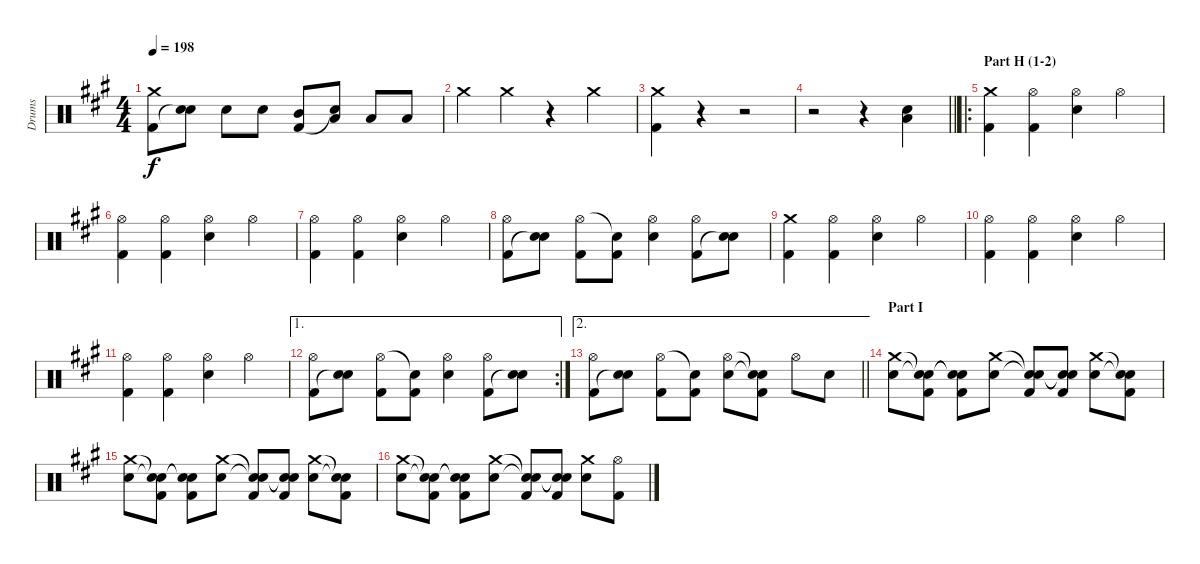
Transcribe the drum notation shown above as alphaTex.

\track ("Drums" "Drums") {instrument percussion}
\staff {score}
\articulation defaults
\ts (4 4)
\tempo 198
\clef neutral
\ks a
("Crash medium (hit)" "Kick (hit) 2").8{dy f} ("Electric Snare (hit)" "Snare (hit)"{t}).8 "Electric Snare (hit)".8 "Electric Snare (hit)".8 ("Mid Tom (hit)" "Kick (hit) 2").8 ("Low Tom (hit)" "Snare (hit)"{t}).8 "Low Tom (hit)".8 "Low Floor Tom (hit)".8 |
"Crash medium (hit)".4 "Crash medium (hit)".4 r.4 "Crash medium (hit)".4 |
("Crash medium (hit)" "Kick (hit) 2").4 r.4 r.2 |
\barLineRight lightlight
r.2 r.4 ("Electric Snare (hit)" "Low Floor Tom (hit)").4 |
\ro
\section ("" "Part H (1-2)")
("Crash medium (hit)" "Kick (hit) 2").4 ("Hi-Hat (open)" "Kick (hit) 2").4 ("Hi-Hat (open)" "Electric Snare (hit)").4 "Hi-Hat (open)".4 |
("Hi-Hat (open)" "Kick (hit) 2").4 ("Hi-Hat (open)" "Kick (hit) 2").4 ("Hi-Hat (open)" "Electric Snare (hit)").4 "Hi-Hat (open)".4 |
("Hi-Hat (open)" "Kick (hit) 2").4 ("Hi-Hat (open)" "Kick (hit) 2").4 ("Hi-Hat (open)" "Electric Snare (hit)").4 "Hi-Hat (open)".4 |
("Hi-Hat (open)" "Kick (hit) 2").8 ("Electric Snare (hit)" "Snare (hit)"{t}).8 ("Hi-Hat (open)" "Kick (hit) 2").8 ("Snare (hit)"{t} "Kick (hit) 2").8 ("Hi-Hat (open)" "Electric Snare (hit)").4 ("Hi-Hat (open)" "Kick (hit) 2").8 ("Electric Snare (hit)" "Snare (hit)"{t}).8 |
("Crash medium (hit)" "Kick (hit) 2").4 ("Hi-Hat (open)" "Kick (hit) 2").4 ("Hi-Hat (open)" "Electric Snare (hit)").4 "Hi-Hat (open)".4 |
("Hi-Hat (open)" "Kick (hit) 2").4 ("Hi-Hat (open)" "Kick (hit) 2").4 ("Hi-Hat (open)" "Electric Snare (hit)").4 "Hi-Hat (open)".4 |
("Hi-Hat (open)" "Kick (hit) 2").4 ("Hi-Hat (open)" "Kick (hit) 2").4 ("Hi-Hat (open)" "Electric Snare (hit)").4 "Hi-Hat (open)".4 |
\ae 1
\rc 2
("Hi-Hat (open)" "Kick (hit) 2").8 ("Electric Snare (hit)" "Snare (hit)"{t}).8 ("Hi-Hat (open)" "Kick (hit) 2").8 ("Snare (hit)"{t} "Kick (hit) 2").8 ("Hi-Hat (open)" "Electric Snare (hit)").4 ("Hi-Hat (open)" "Kick (hit) 2").8 ("Electric Snare (hit)" "Snare (hit)"{t}).8 |
\ae 2
\barLineRight lightlight
("Hi-Hat (open)" "Kick (hit) 2").8 ("Electric Snare (hit)" "Snare (hit)"{t}).8 ("Hi-Hat (open)" "Kick (hit) 2").8 ("Snare (hit)"{t} "Kick (hit) 2").8 ("Hi-Hat (open)" "Electric Snare (hit)").8 ("Snare (hit)"{t} "Snare (hit)"{t} "Kick (hit) 2").8 "Hi-Hat (open)".8 "Electric Snare (hit)".8 |
\section ("" "Part I")
("Crash medium (hit)" "Electric Snare (hit)").8 ("Snare (hit)"{t} "Snare (hit)"{t} "Kick (hit) 2").8 ("Snare (hit)"{t} "Snare (hit)"{t} "Kick (hit) 2").8 ("Crash medium (hit)" "Electric Snare (hit)").8 ("Snare (hit)"{t} "Snare (hit)"{t} "Kick (hit) 2").8 ("Snare (hit)"{t} "Snare (hit)"{t} "Kick (hit) 2").8 ("Crash medium (hit)" "Electric Snare (hit)").8 ("Snare (hit)"{t} "Snare (hit)"{t} "Kick (hit) 2").8 |
("Crash medium (hit)" "Electric Snare (hit)").8 ("Snare (hit)"{t} "Snare (hit)"{t} "Kick (hit) 2").8 ("Snare (hit)"{t} "Snare (hit)"{t} "Kick (hit) 2").8 ("Crash medium (hit)" "Electric Snare (hit)").8 ("Snare (hit)"{t} "Snare (hit)"{t} "Kick (hit) 2").8 ("Snare (hit)"{t} "Snare (hit)"{t} "Kick (hit) 2").8 ("Crash medium (hit)" "Electric Snare (hit)").8 ("Snare (hit)"{t} "Snare (hit)"{t} "Kick (hit) 2").8 |
("Crash medium (hit)" "Electric Snare (hit)").8 ("Snare (hit)"{t} "Snare (hit)"{t} "Kick (hit) 2").8 ("Snare (hit)"{t} "Snare (hit)"{t} "Kick (hit) 2").8 ("Crash medium (hit)" "Electric Snare (hit)").8 ("Snare (hit)"{t} "Snare (hit)"{t} "Kick (hit) 2").8 ("Snare (hit)"{t} "Snare (hit)"{t} "Kick (hit) 2").8 ("Crash medium (hit)" "Electric Snare (hit)").8 ("Hi-Hat (open)" "Kick (hit) 2").8
